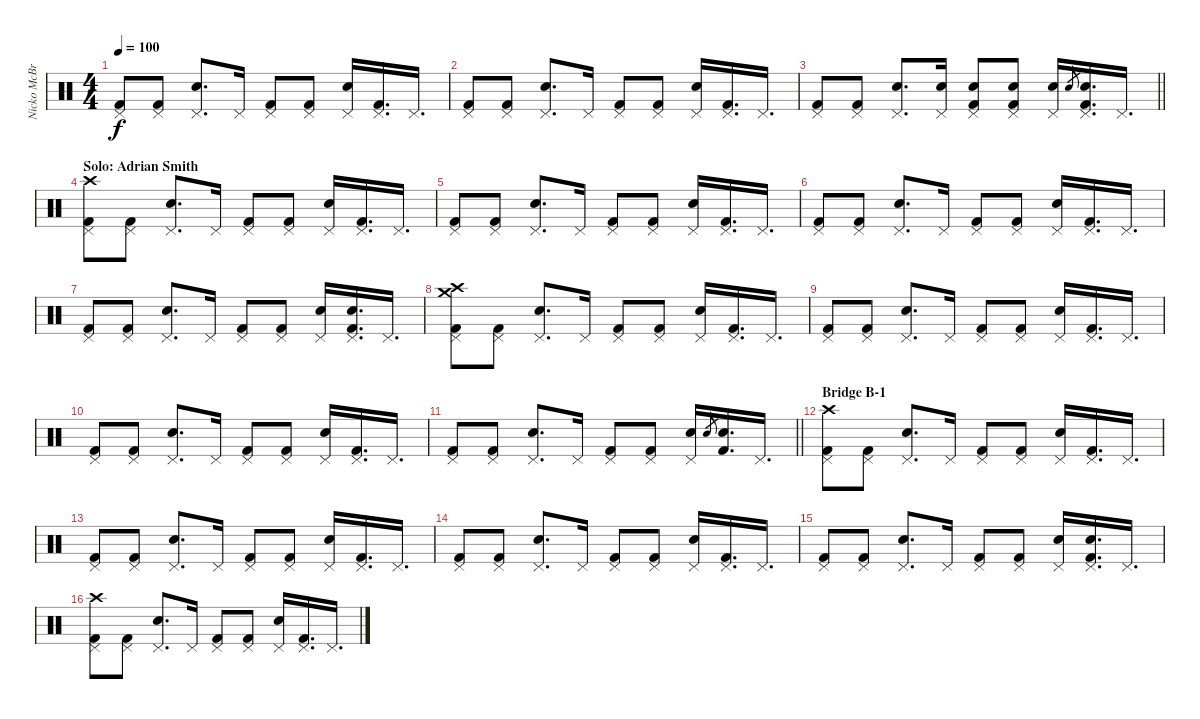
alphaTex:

\track ("Nicko McBrain" "Nicko McBr") {instrument percussion}
\staff {score}
\articulation defaults
\ts (4 4)
\tempo 100
\clef neutral
\ks c
("Pedal Hi-Hat (hit)" "Kick (hit) 2").8{dy f} ("Pedal Hi-Hat (hit)" "Kick (hit) 2").8 ("Electric Snare (hit)" "Pedal Hi-Hat (hit)").8{d} "Pedal Hi-Hat (hit)".16 ("Pedal Hi-Hat (hit)" "Kick (hit) 2").8 ("Pedal Hi-Hat (hit)" "Kick (hit) 2").8 ("Electric Snare (hit)" "Pedal Hi-Hat (hit)").16 ("Pedal Hi-Hat (hit)" "Kick (hit) 2").16{d} "Pedal Hi-Hat (hit)".16{d} |
("Pedal Hi-Hat (hit)" "Kick (hit) 2").8 ("Pedal Hi-Hat (hit)" "Kick (hit) 2").8 ("Electric Snare (hit)" "Pedal Hi-Hat (hit)").8{d} "Pedal Hi-Hat (hit)".16 ("Pedal Hi-Hat (hit)" "Kick (hit) 2").8 ("Pedal Hi-Hat (hit)" "Kick (hit) 2").8 ("Electric Snare (hit)" "Pedal Hi-Hat (hit)").16 ("Pedal Hi-Hat (hit)" "Kick (hit) 2").16{d} "Pedal Hi-Hat (hit)".16{d} |
\barLineRight lightlight
("Pedal Hi-Hat (hit)" "Kick (hit) 2").8 ("Pedal Hi-Hat (hit)" "Kick (hit) 2").8 ("Electric Snare (hit)" "Pedal Hi-Hat (hit)").8{d} ("Pedal Hi-Hat (hit)" "Electric Snare (hit)").16 ("Pedal Hi-Hat (hit)" "Electric Snare (hit)" "Kick (hit) 2").8 ("Pedal Hi-Hat (hit)" "Electric Snare (hit)" "Kick (hit) 2").8 ("Pedal Hi-Hat (hit)" "Electric Snare (hit)").16 "Electric Snare (hit)".8{gr} ("Pedal Hi-Hat (hit)" "Electric Snare (hit)" "Kick (hit) 2").16{d} "Pedal Hi-Hat (hit)".16{d} |
\section ("" "Solo: Adrian Smith")
("Pedal Hi-Hat (hit)" "Crash high (hit)" "Kick (hit) 2").8 ("Pedal Hi-Hat (hit)" "Kick (hit) 2").8 ("Electric Snare (hit)" "Pedal Hi-Hat (hit)").8{d} "Pedal Hi-Hat (hit)".16 ("Pedal Hi-Hat (hit)" "Kick (hit) 2").8 ("Pedal Hi-Hat (hit)" "Kick (hit) 2").8 ("Electric Snare (hit)" "Pedal Hi-Hat (hit)").16 ("Pedal Hi-Hat (hit)" "Kick (hit) 2").16{d} "Pedal Hi-Hat (hit)".16{d} |
("Pedal Hi-Hat (hit)" "Kick (hit) 2").8 ("Pedal Hi-Hat (hit)" "Kick (hit) 2").8 ("Electric Snare (hit)" "Pedal Hi-Hat (hit)").8{d} "Pedal Hi-Hat (hit)".16 ("Pedal Hi-Hat (hit)" "Kick (hit) 2").8 ("Pedal Hi-Hat (hit)" "Kick (hit) 2").8 ("Electric Snare (hit)" "Pedal Hi-Hat (hit)").16 ("Pedal Hi-Hat (hit)" "Kick (hit) 2").16{d} "Pedal Hi-Hat (hit)".16{d} |
("Pedal Hi-Hat (hit)" "Kick (hit) 2").8 ("Pedal Hi-Hat (hit)" "Kick (hit) 2").8 ("Electric Snare (hit)" "Pedal Hi-Hat (hit)").8{d} "Pedal Hi-Hat (hit)".16 ("Pedal Hi-Hat (hit)" "Kick (hit) 2").8 ("Pedal Hi-Hat (hit)" "Kick (hit) 2").8 ("Electric Snare (hit)" "Pedal Hi-Hat (hit)").16 ("Pedal Hi-Hat (hit)" "Kick (hit) 2").16{d} "Pedal Hi-Hat (hit)".16{d} |
("Pedal Hi-Hat (hit)" "Kick (hit) 2").8 ("Pedal Hi-Hat (hit)" "Kick (hit) 2").8 ("Electric Snare (hit)" "Pedal Hi-Hat (hit)").8{d} "Pedal Hi-Hat (hit)".16 ("Pedal Hi-Hat (hit)" "Kick (hit) 2").8 ("Pedal Hi-Hat (hit)" "Kick (hit) 2").8 ("Electric Snare (hit)" "Pedal Hi-Hat (hit)").16 ("Pedal Hi-Hat (hit)" "Electric Snare (hit)" "Kick (hit) 2").16{d} "Pedal Hi-Hat (hit)".16{d} |
("Pedal Hi-Hat (hit)" "Crash high (hit)" "Crash medium (hit)" "Kick (hit) 2").8 ("Pedal Hi-Hat (hit)" "Kick (hit) 2").8 ("Electric Snare (hit)" "Pedal Hi-Hat (hit)").8{d} "Pedal Hi-Hat (hit)".16 ("Pedal Hi-Hat (hit)" "Kick (hit) 2").8 ("Pedal Hi-Hat (hit)" "Kick (hit) 2").8 ("Electric Snare (hit)" "Pedal Hi-Hat (hit)").16 ("Pedal Hi-Hat (hit)" "Kick (hit) 2").16{d} "Pedal Hi-Hat (hit)".16{d} |
("Pedal Hi-Hat (hit)" "Kick (hit) 2").8 ("Pedal Hi-Hat (hit)" "Kick (hit) 2").8 ("Electric Snare (hit)" "Pedal Hi-Hat (hit)").8{d} "Pedal Hi-Hat (hit)".16 ("Pedal Hi-Hat (hit)" "Kick (hit) 2").8 ("Pedal Hi-Hat (hit)" "Kick (hit) 2").8 ("Electric Snare (hit)" "Pedal Hi-Hat (hit)").16 ("Pedal Hi-Hat (hit)" "Kick (hit) 2").16{d} "Pedal Hi-Hat (hit)".16{d} |
("Pedal Hi-Hat (hit)" "Kick (hit) 2").8 ("Pedal Hi-Hat (hit)" "Kick (hit) 2").8 ("Electric Snare (hit)" "Pedal Hi-Hat (hit)").8{d} "Pedal Hi-Hat (hit)".16 ("Pedal Hi-Hat (hit)" "Kick (hit) 2").8 ("Pedal Hi-Hat (hit)" "Kick (hit) 2").8 ("Electric Snare (hit)" "Pedal Hi-Hat (hit)").16 ("Pedal Hi-Hat (hit)" "Kick (hit) 2").16{d} "Pedal Hi-Hat (hit)".16{d} |
\barLineRight lightlight
("Pedal Hi-Hat (hit)" "Kick (hit) 2").8 ("Pedal Hi-Hat (hit)" "Kick (hit) 2").8 ("Electric Snare (hit)" "Pedal Hi-Hat (hit)").8{d} "Pedal Hi-Hat (hit)".16 ("Pedal Hi-Hat (hit)" "Kick (hit) 2").8 ("Pedal Hi-Hat (hit)" "Kick (hit) 2").8 ("Electric Snare (hit)" "Pedal Hi-Hat (hit)").16 "Electric Snare (hit)".8{gr} ("Electric Snare (hit)" "Kick (hit) 2").16{d} "Pedal Hi-Hat (hit)".16{d} |
\section ("" "Bridge B-1")
("Pedal Hi-Hat (hit)" "Crash high (hit)" "Kick (hit) 2").8 ("Pedal Hi-Hat (hit)" "Kick (hit) 2").8 ("Electric Snare (hit)" "Pedal Hi-Hat (hit)").8{d} "Pedal Hi-Hat (hit)".16 ("Pedal Hi-Hat (hit)" "Kick (hit) 2").8 ("Pedal Hi-Hat (hit)" "Kick (hit) 2").8 ("Electric Snare (hit)" "Pedal Hi-Hat (hit)").16 ("Pedal Hi-Hat (hit)" "Kick (hit) 2").16{d} "Pedal Hi-Hat (hit)".16{d} |
("Pedal Hi-Hat (hit)" "Kick (hit) 2").8 ("Pedal Hi-Hat (hit)" "Kick (hit) 2").8 ("Electric Snare (hit)" "Pedal Hi-Hat (hit)").8{d} "Pedal Hi-Hat (hit)".16 ("Pedal Hi-Hat (hit)" "Kick (hit) 2").8 ("Pedal Hi-Hat (hit)" "Kick (hit) 2").8 ("Electric Snare (hit)" "Pedal Hi-Hat (hit)").16 ("Pedal Hi-Hat (hit)" "Kick (hit) 2").16{d} "Pedal Hi-Hat (hit)".16{d} |
("Pedal Hi-Hat (hit)" "Kick (hit) 2").8 ("Pedal Hi-Hat (hit)" "Kick (hit) 2").8 ("Electric Snare (hit)" "Pedal Hi-Hat (hit)").8{d} "Pedal Hi-Hat (hit)".16 ("Pedal Hi-Hat (hit)" "Kick (hit) 2").8 ("Pedal Hi-Hat (hit)" "Kick (hit) 2").8 ("Electric Snare (hit)" "Pedal Hi-Hat (hit)").16 ("Pedal Hi-Hat (hit)" "Kick (hit) 2").16{d} "Pedal Hi-Hat (hit)".16{d} |
("Pedal Hi-Hat (hit)" "Kick (hit) 2").8 ("Pedal Hi-Hat (hit)" "Kick (hit) 2").8 ("Electric Snare (hit)" "Pedal Hi-Hat (hit)").8{d} "Pedal Hi-Hat (hit)".16 ("Pedal Hi-Hat (hit)" "Kick (hit) 2").8 ("Pedal Hi-Hat (hit)" "Kick (hit) 2").8 ("Electric Snare (hit)" "Pedal Hi-Hat (hit)").16 ("Pedal Hi-Hat (hit)" "Electric Snare (hit)" "Kick (hit) 2").16{d} "Pedal Hi-Hat (hit)".16{d} |
("Pedal Hi-Hat (hit)" "Crash high (hit)" "Kick (hit) 2").8 ("Pedal Hi-Hat (hit)" "Kick (hit) 2").8 ("Electric Snare (hit)" "Pedal Hi-Hat (hit)").8{d} "Pedal Hi-Hat (hit)".16 ("Pedal Hi-Hat (hit)" "Kick (hit) 2").8 ("Pedal Hi-Hat (hit)" "Kick (hit) 2").8 ("Electric Snare (hit)" "Pedal Hi-Hat (hit)").16 ("Pedal Hi-Hat (hit)" "Kick (hit) 2").16{d} "Pedal Hi-Hat (hit)".16{d}
